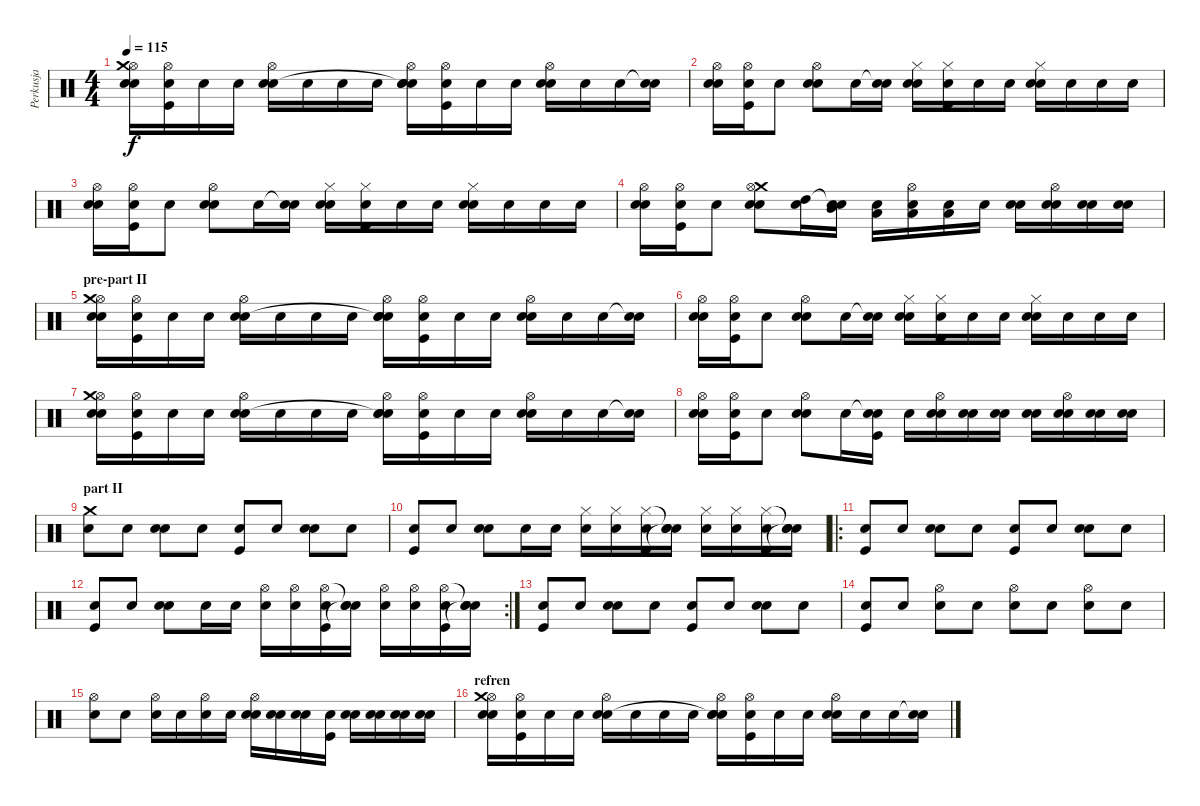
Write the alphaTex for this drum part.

\track ("Perkusja" "Perkusja") {instrument percussion}
\staff {score}
\articulation defaults
\ts (4 4)
\tempo 115
\clef neutral
\ks c
("Hi-Hat (open)" "Electric Snare (hit)" "Crash medium (hit)" "Snare (hit)").16{dy f} ("Hi-Hat (open)" "Kick (hit)" "Snare (hit)").16 "Snare (hit)".16 "Snare (hit)".16 ("Electric Snare (hit)" "Hi-Hat (open)" "Snare (hit)").16 "Snare (hit)".16 "Snare (hit)".16 "Snare (hit)".16 ("Hi-Hat (open)" "Snare (hit) 2" "Electric Snare (hit)"{t} "Snare (hit)").16 ("Hi-Hat (open)" "Kick (hit)" "Snare (hit)").16 "Snare (hit)".16 "Snare (hit)".16 ("Electric Snare (hit)" "Hi-Hat (open)" "Snare (hit)").16 "Snare (hit)".16 "Snare (hit)".16 ("Snare (hit)"{t} "Snare (hit)").16 |
("Hi-Hat (open)" "Snare (hit) 2" "Snare (hit)").16 ("Hi-Hat (open)" "Kick (hit)" "Snare (hit)").16 "Snare (hit)".8 ("Electric Snare (hit)" "Hi-Hat (open)" "Snare (hit)").8 "Snare (hit)".16 ("Snare (hit)"{t} "Snare (hit)").16 ("Hi-Hat (closed)" "Snare (hit) 2" "Snare (hit)").16 ("Hi-Hat (closed)" "Kick (hit)" "Snare (hit)").16 "Snare (hit)".16 "Snare (hit)".16 ("Electric Snare (hit)" "Hi-Hat (closed)" "Snare (hit)").16 "Snare (hit)".16 "Snare (hit)".16 "Snare (hit)".16 |
("Hi-Hat (open)" "Snare (hit) 2" "Snare (hit)").16 ("Hi-Hat (open)" "Kick (hit)" "Snare (hit)").16 "Snare (hit)".8 ("Electric Snare (hit)" "Hi-Hat (open)" "Snare (hit)").8 "Snare (hit)".16 ("Snare (hit)"{t} "Snare (hit)").16 ("Hi-Hat (closed)" "Snare (hit) 2" "Snare (hit)").16 ("Hi-Hat (closed)" "Kick (hit)" "Snare (hit)").16 "Snare (hit)".16 "Snare (hit)".16 ("Electric Snare (hit)" "Hi-Hat (closed)" "Snare (hit)").16 "Snare (hit)".16 "Snare (hit)".16 "Snare (hit)".16 |
("Hi-Hat (open)" "Snare (hit) 2" "Snare (hit)").16 ("Hi-Hat (open)" "Kick (hit)" "Snare (hit)").16 "Snare (hit)".8 ("Electric Snare (hit)" "Crash medium (hit)" "Hi-Hat (open)" "Snare (hit)").8 ("High Tom (hit)" "Snare (hit)").16 ("Snare (hit)"{t} "Mid Tom (hit)" "Snare (hit)").16 ("Low Tom (hit)" "Snare (hit)").16 ("Hi-Hat (open)" "Low Tom (hit)" "Snare (hit)").16 ("Low Tom (hit)" "Snare (hit)").16 "Snare (hit)".16 ("Electric Snare (hit)" "Snare (hit)").16 ("Hi-Hat (open)" "Electric Snare (hit)" "Snare (hit)").16 ("Electric Snare (hit)" "Snare (hit)").16 ("Electric Snare (hit)" "Snare (hit)").16 |
\section ("" "pre-part II")
("Hi-Hat (open)" "Snare (hit) 2" "Crash medium (hit)" "Snare (hit)").16 ("Hi-Hat (open)" "Kick (hit)" "Snare (hit)").16 "Snare (hit)".16 "Snare (hit)".16 ("Electric Snare (hit)" "Hi-Hat (open)" "Snare (hit)").16 "Snare (hit)".16 "Snare (hit)".16 "Snare (hit)".16 ("Hi-Hat (open)" "Snare (hit) 2" "Electric Snare (hit)"{t} "Snare (hit)").16 ("Hi-Hat (open)" "Kick (hit)" "Snare (hit)").16 "Snare (hit)".16 "Snare (hit)".16 ("Electric Snare (hit)" "Hi-Hat (open)" "Snare (hit)").16 "Snare (hit)".16 "Snare (hit)".16 ("Snare (hit)"{t} "Snare (hit)").16 |
("Hi-Hat (open)" "Snare (hit) 2" "Snare (hit)").16 ("Hi-Hat (open)" "Kick (hit)" "Snare (hit)").16 "Snare (hit)".8 ("Electric Snare (hit)" "Hi-Hat (open)" "Snare (hit)").8 "Snare (hit)".16 ("Snare (hit)"{t} "Snare (hit)").16 ("Hi-Hat (closed)" "Snare (hit) 2" "Snare (hit)").16 ("Hi-Hat (closed)" "Kick (hit)" "Snare (hit)").16 "Snare (hit)".16 "Snare (hit)".16 ("Electric Snare (hit)" "Hi-Hat (closed)" "Snare (hit)").16 "Snare (hit)".16 "Snare (hit)".16 "Snare (hit)".16 |
("Hi-Hat (open)" "Snare (hit) 2" "Crash medium (hit)" "Snare (hit)").16 ("Hi-Hat (open)" "Kick (hit)" "Snare (hit)").16 "Snare (hit)".16 "Snare (hit)".16 ("Electric Snare (hit)" "Hi-Hat (open)" "Snare (hit)").16 "Snare (hit)".16 "Snare (hit)".16 "Snare (hit)".16 ("Hi-Hat (open)" "Snare (hit) 2" "Electric Snare (hit)"{t} "Snare (hit)").16 ("Hi-Hat (open)" "Kick (hit)" "Snare (hit)").16 "Snare (hit)".16 "Snare (hit)".16 ("Electric Snare (hit)" "Hi-Hat (open)" "Snare (hit)").16 "Snare (hit)".16 "Snare (hit)".16 ("Snare (hit)"{t} "Snare (hit)").16 |
("Hi-Hat (open)" "Snare (hit) 2" "Snare (hit)").16 ("Hi-Hat (open)" "Kick (hit)" "Snare (hit)").16 "Snare (hit)".8 ("Electric Snare (hit)" "Hi-Hat (open)" "Snare (hit)").8 "Snare (hit)".16 ("Snare (hit)"{t} "Kick (hit)" "Snare (hit)").16 "Snare (hit)".16 ("Hi-Hat (open)" "Electric Snare (hit)" "Snare (hit)").16 ("Electric Snare (hit)" "Snare (hit)").16 ("Electric Snare (hit)" "Snare (hit)").16 ("Electric Snare (hit)" "Snare (hit)").16 ("Hi-Hat (open)" "Electric Snare (hit)" "Snare (hit)").16 ("Electric Snare (hit)" "Snare (hit)").16 ("Electric Snare (hit)" "Snare (hit)").16 |
\section ("" "part II")
("Crash medium (hit)" "Snare (hit)").8 "Snare (hit)".8 ("Electric Snare (hit)" "Snare (hit)").8 "Snare (hit)".8 ("Kick (hit)" "Snare (hit)").8 "Snare (hit)".8 ("Electric Snare (hit)" "Snare (hit)").8 "Snare (hit)".8 |
("Kick (hit)" "Snare (hit)").8 "Snare (hit)".8 ("Electric Snare (hit)" "Snare (hit)").8 "Snare (hit)".16 "Snare (hit)".16 ("Hi-Hat (closed)" "Snare (hit)").16 ("Hi-Hat (closed)" "Snare (hit)").16 ("Hi-Hat (closed)" "Kick (hit)" "Snare (hit)").16 ("Snare (hit)"{t} "Snare (hit)"{t} "Snare (hit)").16 ("Hi-Hat (closed)" "Snare (hit)").16 ("Hi-Hat (closed)" "Snare (hit)").16 ("Hi-Hat (closed)" "Kick (hit)" "Snare (hit)").16 ("Snare (hit)"{t} "Snare (hit)"{t} "Snare (hit)").16 |
\ro
("Kick (hit)" "Snare (hit)").8 "Snare (hit)".8 ("Electric Snare (hit)" "Snare (hit)").8 "Snare (hit)".8 ("Kick (hit)" "Snare (hit)").8 "Snare (hit)".8 ("Electric Snare (hit)" "Snare (hit)").8 "Snare (hit)".8 |
\rc 2
("Kick (hit)" "Snare (hit)").8 "Snare (hit)".8 ("Electric Snare (hit)" "Snare (hit)").8 "Snare (hit)".16 "Snare (hit)".16 ("Hi-Hat (open)" "Snare (hit)").16 ("Hi-Hat (open)" "Snare (hit)").16 ("Hi-Hat (open)" "Kick (hit)" "Snare (hit)").16 ("Snare (hit)"{t} "Snare (hit)"{t} "Snare (hit)").16 ("Hi-Hat (open)" "Snare (hit)").16 ("Hi-Hat (open)" "Snare (hit)").16 ("Hi-Hat (open)" "Kick (hit)" "Snare (hit)").16 ("Snare (hit)"{t} "Snare (hit)"{t} "Snare (hit)").16 |
("Kick (hit)" "Snare (hit)").8 "Snare (hit)".8 ("Electric Snare (hit)" "Snare (hit)").8 "Snare (hit)".8 ("Kick (hit)" "Snare (hit)").8 "Snare (hit)".8 ("Electric Snare (hit)" "Snare (hit)").8 "Snare (hit)".8 |
("Kick (hit)" "Snare (hit)").8 "Snare (hit)".8 ("Hi-Hat (open)" "Snare (hit)").8 "Snare (hit)".8 ("Hi-Hat (open)" "Snare (hit)").8 "Snare (hit)".8 ("Hi-Hat (open)" "Snare (hit)").8 "Snare (hit)".8 |
("Hi-Hat (open)" "Snare (hit)").8 "Snare (hit)".8 ("Hi-Hat (open)" "Snare (hit)").16 "Snare (hit)".16 ("Hi-Hat (open)" "Snare (hit)").16 "Snare (hit)".16 ("Hi-Hat (open)" "Snare (hit) 2" "Snare (hit)").16 ("Snare (hit) 2" "Snare (hit)").16 ("Snare (hit) 2" "Snare (hit)").16 ("Kick (hit)" "Snare (hit)").16 ("Electric Snare (hit)" "Snare (hit)").16 ("Electric Snare (hit)" "Snare (hit)").16 ("Electric Snare (hit)" "Snare (hit)").16 ("Electric Snare (hit)" "Snare (hit)").16 |
\section ("" "refren")
("Hi-Hat (open)" "Electric Snare (hit)" "Crash medium (hit)" "Snare (hit)").16 ("Hi-Hat (open)" "Kick (hit)" "Snare (hit)").16 "Snare (hit)".16 "Snare (hit)".16 ("Electric Snare (hit)" "Hi-Hat (open)" "Snare (hit)").16 "Snare (hit)".16 "Snare (hit)".16 "Snare (hit)".16 ("Hi-Hat (open)" "Snare (hit) 2" "Electric Snare (hit)"{t} "Snare (hit)").16 ("Hi-Hat (open)" "Kick (hit)" "Snare (hit)").16 "Snare (hit)".16 "Snare (hit)".16 ("Electric Snare (hit)" "Hi-Hat (open)" "Snare (hit)").16 "Snare (hit)".16 "Snare (hit)".16 ("Snare (hit)"{t} "Snare (hit)").16
